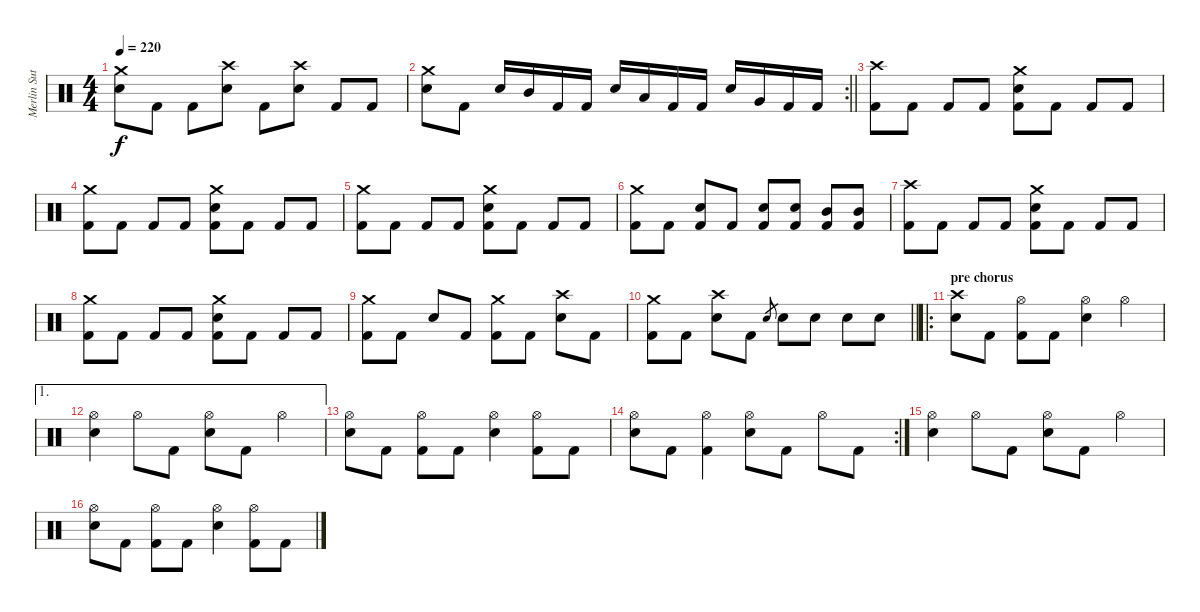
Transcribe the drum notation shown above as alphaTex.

\track ("Merlin Sutter" "Merlin Sut") {instrument percussion}
\staff {score}
\articulation defaults
\ts (4 4)
\tempo 220
\clef neutral
\ks c
("Crash medium (hit)" "Snare (hit) 2").8{dy f} "Kick (hit) 2".8 "Kick (hit) 2".8 ("Crash high (hit)" "Snare (hit) 2").8 "Kick (hit) 2".8 ("Crash high (hit)" "Snare (hit) 2").8 "Kick (hit) 2".8 "Kick (hit) 2".8 |
\rc 2
\barLineRight lightlight
("Crash medium (hit)" "Snare (hit) 2").8 "Kick (hit) 2".8 "Snare (hit) 2".16 "Mid Tom (hit)".16 "Kick (hit) 2".16 "Kick (hit) 2".16 "Snare (hit) 2".16 "Low Tom (hit)".16 "Kick (hit) 2".16 "Kick (hit) 2".16 "Snare (hit) 2".16 "Very Low Tom (hit)".16 "Kick (hit) 2".16 "Kick (hit) 2".16 |
\section ("" "")
("Crash high (hit)" "Kick (hit) 2").8 "Kick (hit) 2".8 "Kick (hit) 2".8 "Kick (hit) 2".8 ("Crash medium (hit)" "Snare (hit) 2" "Kick (hit) 2").8 "Kick (hit) 2".8 "Kick (hit) 2".8 "Kick (hit) 2".8 |
("Crash medium (hit)" "Kick (hit) 2").8 "Kick (hit) 2".8 "Kick (hit) 2".8 "Kick (hit) 2".8 ("Crash medium (hit)" "Snare (hit) 2" "Kick (hit) 2").8 "Kick (hit) 2".8 "Kick (hit) 2".8 "Kick (hit) 2".8 |
("Crash medium (hit)" "Kick (hit) 2").8 "Kick (hit) 2".8 "Kick (hit) 2".8 "Kick (hit) 2".8 ("Crash medium (hit)" "Snare (hit) 2" "Kick (hit) 2").8 "Kick (hit) 2".8 "Kick (hit) 2".8 "Kick (hit) 2".8 |
("Crash medium (hit)" "Kick (hit) 2").8 "Kick (hit) 2".8 ("Snare (hit) 2" "Kick (hit) 2").8 "Kick (hit) 2".8 ("Snare (hit) 2" "Kick (hit) 2").8 ("Snare (hit) 2" "Kick (hit) 2").8 ("Mid Tom (hit)" "Kick (hit) 2").8 ("Mid Tom (hit)" "Kick (hit) 2").8 |
("Crash high (hit)" "Kick (hit) 2").8 "Kick (hit) 2".8 "Kick (hit) 2".8 "Kick (hit) 2".8 ("Crash medium (hit)" "Snare (hit) 2" "Kick (hit) 2").8 "Kick (hit) 2".8 "Kick (hit) 2".8 "Kick (hit) 2".8 |
("Crash medium (hit)" "Kick (hit) 2").8 "Kick (hit) 2".8 "Kick (hit) 2".8 "Kick (hit) 2".8 ("Crash medium (hit)" "Snare (hit) 2" "Kick (hit) 2").8 "Kick (hit) 2".8 "Kick (hit) 2".8 "Kick (hit) 2".8 |
("Crash medium (hit)" "Kick (hit) 2").8 "Kick (hit) 2".8 "Snare (hit) 2".8 "Kick (hit) 2".8 ("Crash medium (hit)" "Kick (hit) 2").8 "Kick (hit) 2".8 ("Crash high (hit)" "Snare (hit) 2").8 "Kick (hit) 2".8 |
\barLineRight lightlight
("Crash medium (hit)" "Kick (hit) 2").8 "Kick (hit) 2".8 ("Crash high (hit)" "Snare (hit) 2").8 "Kick (hit) 2".8 "Snare (hit) 2".8{gr} "Snare (hit) 2".8 "Snare (hit) 2".8 "Snare (hit) 2".8 "Snare (hit) 2".8 |
\ro
\section ("" "pre chorus")
("Crash high (hit)" "Snare (hit) 2").8 "Kick (hit) 2".8 ("Hi-Hat (open)" "Kick (hit) 2").8 "Kick (hit) 2".8 ("Hi-Hat (open)" "Snare (hit) 2").4 "Hi-Hat (open)".4 |
\ae 1
("Hi-Hat (open)" "Snare (hit) 2").4 "Hi-Hat (open)".8 "Kick (hit) 2".8 ("Hi-Hat (open)" "Snare (hit) 2").8 "Kick (hit) 2".8 "Hi-Hat (open)".4 |
("Hi-Hat (open)" "Snare (hit) 2").8 "Kick (hit) 2".8 ("Hi-Hat (open)" "Kick (hit) 2").8 "Kick (hit) 2".8 ("Hi-Hat (open)" "Snare (hit) 2").4 ("Hi-Hat (open)" "Kick (hit) 2").8 "Kick (hit) 2".8 |
\rc 2
("Hi-Hat (open)" "Snare (hit) 2").8 "Kick (hit) 2".8 ("Hi-Hat (open)" "Kick (hit) 2").4 ("Hi-Hat (open)" "Snare (hit) 2").8 "Kick (hit) 2".8 "Hi-Hat (open)".8 "Kick (hit) 2".8 |
("Hi-Hat (open)" "Snare (hit) 2").4 "Hi-Hat (open)".8 "Kick (hit) 2".8 ("Hi-Hat (open)" "Snare (hit) 2").8 "Kick (hit) 2".8 "Hi-Hat (open)".4 |
("Hi-Hat (open)" "Snare (hit) 2").8 "Kick (hit) 2".8 ("Hi-Hat (open)" "Kick (hit) 2").8 "Kick (hit) 2".8 ("Hi-Hat (open)" "Snare (hit) 2").4 ("Hi-Hat (open)" "Kick (hit) 2").8 "Kick (hit) 2".8
